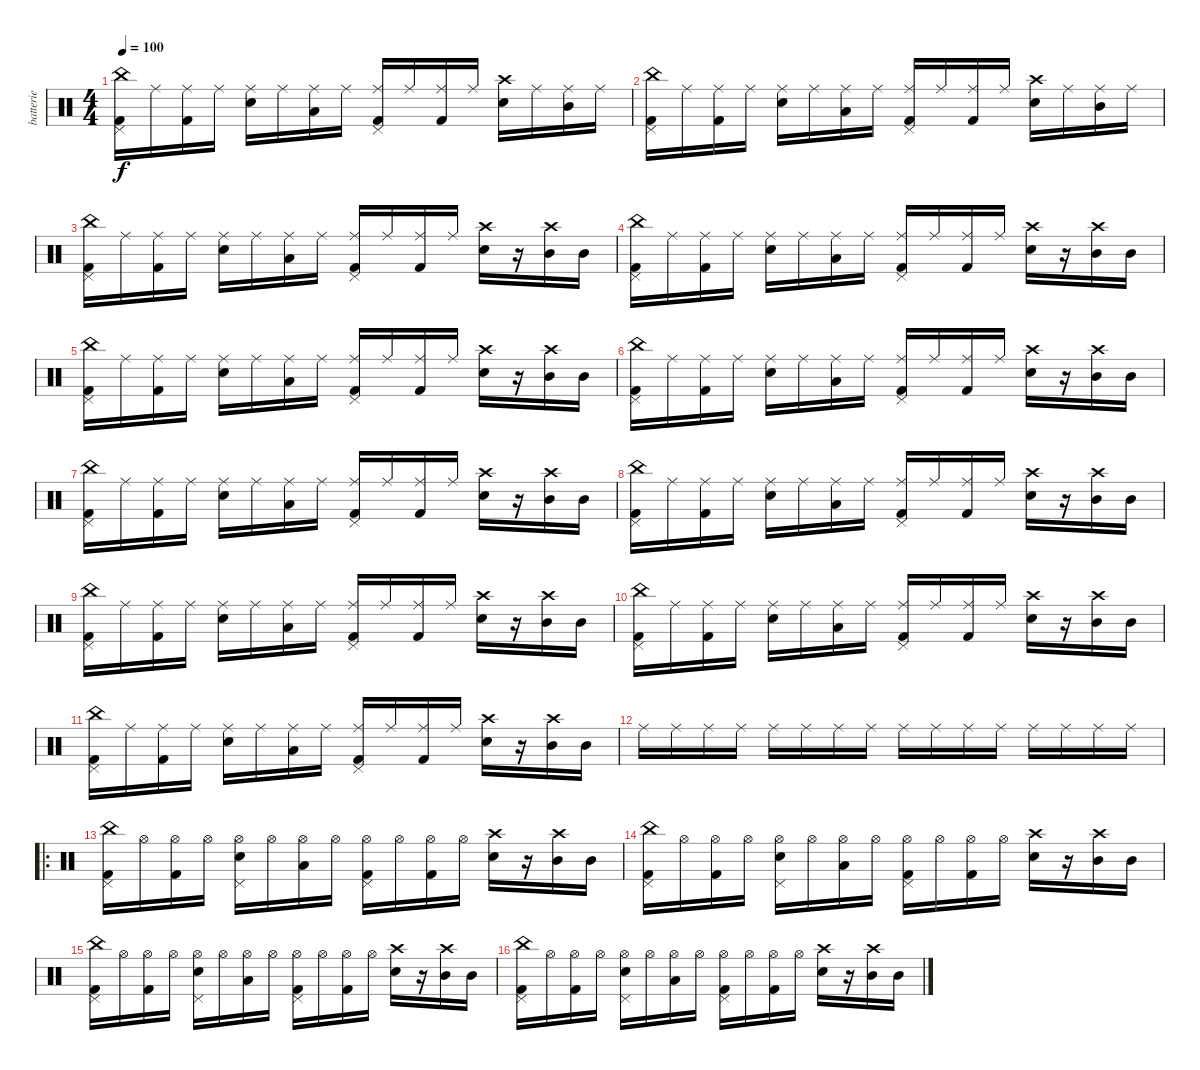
\track ("batterie" "batterie") {instrument percussion}
\staff {score}
\articulation defaults
\ts (4 4)
\tempo 100
\clef neutral
\ks c
("China (hit)" "Pedal Hi-Hat (hit)" "Kick (hit) 2").16{dy f} "Ride (middle)".16 ("Ride (middle)" "Kick (hit) 2").16 "Ride (middle)".16 ("Ride (middle)" "Snare (hit) 2").16 "Ride (middle)".16 ("Ride (middle)" "Low Floor Tom (hit)").16 "Ride (middle)".16 ("Ride (middle)" "Pedal Hi-Hat (hit)" "Kick (hit) 2").16 "Ride (middle)".16 ("Ride (middle)" "Kick (hit) 2").16 "Ride (middle)".16 ("Crash high (hit)" "Snare (hit) 2").16 "Ride (middle)".16 ("Ride (middle)" "Mid Tom (hit)").16 "Ride (middle)".16 |
("China (hit)" "Pedal Hi-Hat (hit)" "Kick (hit) 2").16 "Ride (middle)".16 ("Ride (middle)" "Kick (hit) 2").16 "Ride (middle)".16 ("Ride (middle)" "Snare (hit) 2").16 "Ride (middle)".16 ("Ride (middle)" "Low Floor Tom (hit)").16 "Ride (middle)".16 ("Ride (middle)" "Pedal Hi-Hat (hit)" "Kick (hit) 2").16 "Ride (middle)".16 ("Ride (middle)" "Kick (hit) 2").16 "Ride (middle)".16 ("Crash high (hit)" "Snare (hit) 2").16 "Ride (middle)".16 ("Ride (middle)" "Mid Tom (hit)").16 "Ride (middle)".16 |
("China (hit)" "Pedal Hi-Hat (hit)" "Kick (hit) 2").16 "Ride (middle)".16 ("Ride (middle)" "Kick (hit) 2").16 "Ride (middle)".16 ("Ride (middle)" "Snare (hit) 2").16 "Ride (middle)".16 ("Ride (middle)" "Low Floor Tom (hit)").16 "Ride (middle)".16 ("Ride (middle)" "Pedal Hi-Hat (hit)" "Kick (hit) 2").16 "Ride (middle)".16 ("Ride (middle)" "Kick (hit) 2").16 "Ride (middle)".16 ("Crash high (hit)" "Snare (hit) 2").16 r.16 ("Crash high (hit)" "Mid Tom (hit)").16 "Mid Tom (hit)".16 |
("China (hit)" "Pedal Hi-Hat (hit)" "Kick (hit) 2").16 "Ride (middle)".16 ("Ride (middle)" "Kick (hit) 2").16 "Ride (middle)".16 ("Ride (middle)" "Snare (hit) 2").16 "Ride (middle)".16 ("Ride (middle)" "Low Floor Tom (hit)").16 "Ride (middle)".16 ("Ride (middle)" "Pedal Hi-Hat (hit)" "Kick (hit) 2").16 "Ride (middle)".16 ("Ride (middle)" "Kick (hit) 2").16 "Ride (middle)".16 ("Crash high (hit)" "Snare (hit) 2").16 r.16 ("Crash high (hit)" "Mid Tom (hit)").16 "Mid Tom (hit)".16 |
("China (hit)" "Pedal Hi-Hat (hit)" "Kick (hit) 2").16 "Ride (middle)".16 ("Ride (middle)" "Kick (hit) 2").16 "Ride (middle)".16 ("Ride (middle)" "Snare (hit) 2").16 "Ride (middle)".16 ("Ride (middle)" "Low Floor Tom (hit)").16 "Ride (middle)".16 ("Ride (middle)" "Pedal Hi-Hat (hit)" "Kick (hit) 2").16 "Ride (middle)".16 ("Ride (middle)" "Kick (hit) 2").16 "Ride (middle)".16 ("Crash high (hit)" "Snare (hit) 2").16 r.16 ("Crash high (hit)" "Mid Tom (hit)").16 "Mid Tom (hit)".16 |
("China (hit)" "Pedal Hi-Hat (hit)" "Kick (hit) 2").16 "Ride (middle)".16 ("Ride (middle)" "Kick (hit) 2").16 "Ride (middle)".16 ("Ride (middle)" "Snare (hit) 2").16 "Ride (middle)".16 ("Ride (middle)" "Low Floor Tom (hit)").16 "Ride (middle)".16 ("Ride (middle)" "Pedal Hi-Hat (hit)" "Kick (hit) 2").16 "Ride (middle)".16 ("Ride (middle)" "Kick (hit) 2").16 "Ride (middle)".16 ("Crash high (hit)" "Snare (hit) 2").16 r.16 ("Crash high (hit)" "Mid Tom (hit)").16 "Mid Tom (hit)".16 |
("China (hit)" "Pedal Hi-Hat (hit)" "Kick (hit) 2").16 "Ride (middle)".16 ("Ride (middle)" "Kick (hit) 2").16 "Ride (middle)".16 ("Ride (middle)" "Snare (hit) 2").16 "Ride (middle)".16 ("Ride (middle)" "Low Floor Tom (hit)").16 "Ride (middle)".16 ("Ride (middle)" "Pedal Hi-Hat (hit)" "Kick (hit) 2").16 "Ride (middle)".16 ("Ride (middle)" "Kick (hit) 2").16 "Ride (middle)".16 ("Crash high (hit)" "Snare (hit) 2").16 r.16 ("Crash high (hit)" "Mid Tom (hit)").16 "Mid Tom (hit)".16 |
("China (hit)" "Pedal Hi-Hat (hit)" "Kick (hit) 2").16 "Ride (middle)".16 ("Ride (middle)" "Kick (hit) 2").16 "Ride (middle)".16 ("Ride (middle)" "Snare (hit) 2").16 "Ride (middle)".16 ("Ride (middle)" "Low Floor Tom (hit)").16 "Ride (middle)".16 ("Ride (middle)" "Pedal Hi-Hat (hit)" "Kick (hit) 2").16 "Ride (middle)".16 ("Ride (middle)" "Kick (hit) 2").16 "Ride (middle)".16 ("Crash high (hit)" "Snare (hit) 2").16 r.16 ("Crash high (hit)" "Mid Tom (hit)").16 "Mid Tom (hit)".16 |
("China (hit)" "Pedal Hi-Hat (hit)" "Kick (hit) 2").16 "Ride (middle)".16 ("Ride (middle)" "Kick (hit) 2").16 "Ride (middle)".16 ("Ride (middle)" "Snare (hit) 2").16 "Ride (middle)".16 ("Ride (middle)" "Low Floor Tom (hit)").16 "Ride (middle)".16 ("Ride (middle)" "Pedal Hi-Hat (hit)" "Kick (hit) 2").16 "Ride (middle)".16 ("Ride (middle)" "Kick (hit) 2").16 "Ride (middle)".16 ("Crash high (hit)" "Snare (hit) 2").16 r.16 ("Crash high (hit)" "Mid Tom (hit)").16 "Mid Tom (hit)".16 |
("China (hit)" "Pedal Hi-Hat (hit)" "Kick (hit) 2").16 "Ride (middle)".16 ("Ride (middle)" "Kick (hit) 2").16 "Ride (middle)".16 ("Ride (middle)" "Snare (hit) 2").16 "Ride (middle)".16 ("Ride (middle)" "Low Floor Tom (hit)").16 "Ride (middle)".16 ("Ride (middle)" "Pedal Hi-Hat (hit)" "Kick (hit) 2").16 "Ride (middle)".16 ("Ride (middle)" "Kick (hit) 2").16 "Ride (middle)".16 ("Crash high (hit)" "Snare (hit) 2").16 r.16 ("Crash high (hit)" "Mid Tom (hit)").16 "Mid Tom (hit)".16 |
("China (hit)" "Pedal Hi-Hat (hit)" "Kick (hit) 2").16 "Ride (middle)".16 ("Ride (middle)" "Kick (hit) 2").16 "Ride (middle)".16 ("Ride (middle)" "Snare (hit) 2").16 "Ride (middle)".16 ("Ride (middle)" "Low Floor Tom (hit)").16 "Ride (middle)".16 ("Ride (middle)" "Pedal Hi-Hat (hit)" "Kick (hit) 2").16 "Ride (middle)".16 ("Ride (middle)" "Kick (hit) 2").16 "Ride (middle)".16 ("Crash high (hit)" "Snare (hit) 2").16 r.16 ("Crash high (hit)" "Mid Tom (hit)").16 "Mid Tom (hit)".16 |
"Ride (middle)".16 "Ride (middle)".16 "Ride (middle)".16 "Ride (middle)".16 "Ride (middle)".16 "Ride (middle)".16 "Ride (middle)".16 "Ride (middle)".16 "Ride (middle)".16 "Ride (middle)".16 "Ride (middle)".16 "Ride (middle)".16 "Ride (middle)".16 "Ride (middle)".16 "Ride (middle)".16 "Ride (middle)".16 |
\ro
("China (hit)" "Pedal Hi-Hat (hit)" "Kick (hit) 2").16 "Hi-Hat (open)".16 ("Hi-Hat (open)" "Kick (hit) 2").16 "Hi-Hat (open)".16 ("Hi-Hat (open)" "Pedal Hi-Hat (hit)" "Snare (hit) 2").16 "Hi-Hat (open)".16 ("Hi-Hat (open)" "Low Floor Tom (hit)").16 "Hi-Hat (open)".16 ("Hi-Hat (open)" "Pedal Hi-Hat (hit)" "Kick (hit) 2").16 "Hi-Hat (open)".16 ("Hi-Hat (open)" "Kick (hit) 2").16 "Hi-Hat (open)".16 ("Crash high (hit)" "Snare (hit) 2").16 r.16 ("Crash high (hit)" "Mid Tom (hit)").16 "Mid Tom (hit)".16 |
("China (hit)" "Pedal Hi-Hat (hit)" "Kick (hit) 2").16 "Hi-Hat (open)".16 ("Hi-Hat (open)" "Kick (hit) 2").16 "Hi-Hat (open)".16 ("Hi-Hat (open)" "Pedal Hi-Hat (hit)" "Snare (hit) 2").16 "Hi-Hat (open)".16 ("Hi-Hat (open)" "Low Floor Tom (hit)").16 "Hi-Hat (open)".16 ("Hi-Hat (open)" "Pedal Hi-Hat (hit)" "Kick (hit) 2").16 "Hi-Hat (open)".16 ("Hi-Hat (open)" "Kick (hit) 2").16 "Hi-Hat (open)".16 ("Crash high (hit)" "Snare (hit) 2").16 r.16 ("Crash high (hit)" "Mid Tom (hit)").16 "Mid Tom (hit)".16 |
("China (hit)" "Pedal Hi-Hat (hit)" "Kick (hit) 2").16 "Hi-Hat (open)".16 ("Hi-Hat (open)" "Kick (hit) 2").16 "Hi-Hat (open)".16 ("Hi-Hat (open)" "Pedal Hi-Hat (hit)" "Snare (hit) 2").16 "Hi-Hat (open)".16 ("Hi-Hat (open)" "Low Floor Tom (hit)").16 "Hi-Hat (open)".16 ("Hi-Hat (open)" "Pedal Hi-Hat (hit)" "Kick (hit) 2").16 "Hi-Hat (open)".16 ("Hi-Hat (open)" "Kick (hit) 2").16 "Hi-Hat (open)".16 ("Crash high (hit)" "Snare (hit) 2").16 r.16 ("Crash high (hit)" "Mid Tom (hit)").16 "Mid Tom (hit)".16 |
("China (hit)" "Pedal Hi-Hat (hit)" "Kick (hit) 2").16 "Hi-Hat (open)".16 ("Hi-Hat (open)" "Kick (hit) 2").16 "Hi-Hat (open)".16 ("Hi-Hat (open)" "Pedal Hi-Hat (hit)" "Snare (hit) 2").16 "Hi-Hat (open)".16 ("Hi-Hat (open)" "Low Floor Tom (hit)").16 "Hi-Hat (open)".16 ("Hi-Hat (open)" "Pedal Hi-Hat (hit)" "Kick (hit) 2").16 "Hi-Hat (open)".16 ("Hi-Hat (open)" "Kick (hit) 2").16 "Hi-Hat (open)".16 ("Crash high (hit)" "Snare (hit) 2").16 r.16 ("Crash high (hit)" "Mid Tom (hit)").16 "Mid Tom (hit)".16
